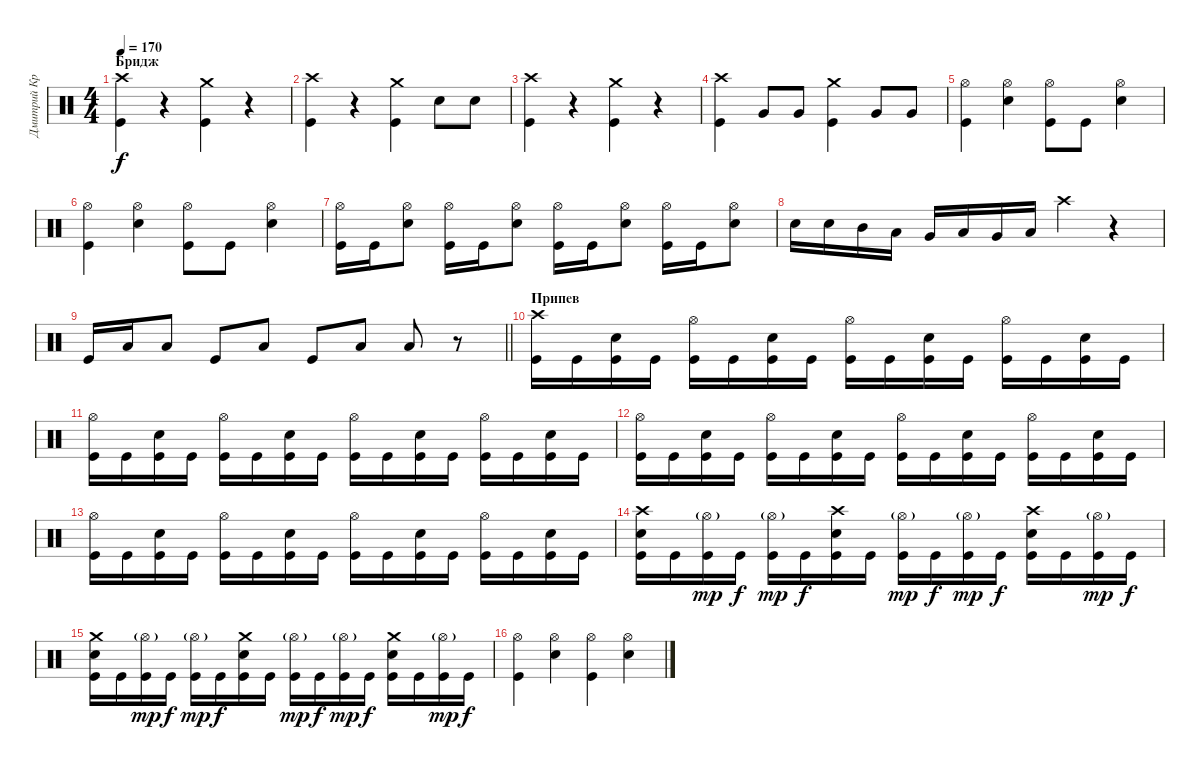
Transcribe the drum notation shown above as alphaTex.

\track ("Дмитрий Кривенков" "Дмитрий Кр") {instrument percussion}
\staff {score}
\articulation defaults
\ts (4 4)
\section ("" "Бридж")
\tempo 170
\clef neutral
\ks c
("Crash high (hit)" "Kick (hit)").4{dy f} r.4 ("Crash medium (hit)" "Kick (hit)").4 r.4 |
("Crash high (hit)" "Kick (hit)").4 r.4 ("Crash medium (hit)" "Kick (hit)").4 "Snare (hit) 2".8 "Snare (hit) 2".8 |
("Crash high (hit)" "Kick (hit)").4 r.4 ("Crash medium (hit)" "Kick (hit)").4 r.4 |
("Crash high (hit)" "Kick (hit)").4 "Very Low Tom (hit)".8 "Very Low Tom (hit)".8 ("Crash medium (hit)" "Kick (hit)").4 "Very Low Tom (hit)".8 "Very Low Tom (hit)".8 |
("Hi-Hat (open)" "Kick (hit)").4 ("Hi-Hat (open)" "Snare (hit) 2").4 ("Hi-Hat (open)" "Kick (hit)").8 "Kick (hit)".8 ("Hi-Hat (open)" "Snare (hit) 2").4 |
("Hi-Hat (open)" "Kick (hit)").4 ("Hi-Hat (open)" "Snare (hit) 2").4 ("Hi-Hat (open)" "Kick (hit)").8 "Kick (hit)".8 ("Hi-Hat (open)" "Snare (hit) 2").4 |
("Hi-Hat (open)" "Kick (hit)").16 "Kick (hit)".16 ("Hi-Hat (open)" "Snare (hit) 2").8 ("Hi-Hat (open)" "Kick (hit)").16 "Kick (hit)".16 ("Hi-Hat (open)" "Snare (hit) 2").8 ("Hi-Hat (open)" "Kick (hit)").16 "Kick (hit)".16 ("Hi-Hat (open)" "Snare (hit) 2").8 ("Hi-Hat (open)" "Kick (hit)").16 "Kick (hit)".16 ("Hi-Hat (open)" "Snare (hit) 2").8 |
"Snare (hit) 2".16 "Snare (hit) 2".16 "Mid Tom (hit)".16 "Low Tom (hit)".16 "Very Low Tom (hit)".16 "Low Floor Tom (hit)".16 "Very Low Tom (hit)".16 "Low Tom (hit)".16 "Crash high (hit)".4 r.4 |
\barLineRight lightlight "Kick (hit)".16 "Low Tom (hit)".16 "Low Tom (hit)".8 "Kick (hit)".8 "Low Tom (hit)".8 "Kick (hit)".8 "Low Tom (hit)".8 "Low Tom (hit)".8
r.8 |
\section ("" "Припев")
("Crash high (hit)" "Kick (hit)").16 "Kick (hit)".16 ("Snare (hit) 2" "Kick (hit)").16 "Kick (hit)".16 ("Hi-Hat (open)" "Kick (hit)").16 "Kick (hit)".16 ("Snare (hit) 2" "Kick (hit)").16 "Kick (hit)".16 ("Hi-Hat (open)" "Kick (hit)").16 "Kick (hit)".16 ("Snare (hit) 2" "Kick (hit)").16 "Kick (hit)".16 ("Hi-Hat (open)" "Kick (hit)").16 "Kick (hit)".16 ("Snare (hit) 2" "Kick (hit)").16 "Kick (hit)".16 |
("Hi-Hat (open)" "Kick (hit)").16 "Kick (hit)".16 ("Snare (hit) 2" "Kick (hit)").16 "Kick (hit)".16 ("Hi-Hat (open)" "Kick (hit)").16 "Kick (hit)".16 ("Snare (hit) 2" "Kick (hit)").16 "Kick (hit)".16 ("Hi-Hat (open)" "Kick (hit)").16 "Kick (hit)".16 ("Snare (hit) 2" "Kick (hit)").16 "Kick (hit)".16 ("Hi-Hat (open)" "Kick (hit)").16 "Kick (hit)".16 ("Snare (hit) 2" "Kick (hit)").16 "Kick (hit)".16 |
("Hi-Hat (open)" "Kick (hit)").16 "Kick (hit)".16 ("Snare (hit) 2" "Kick (hit)").16 "Kick (hit)".16 ("Hi-Hat (open)" "Kick (hit)").16 "Kick (hit)".16 ("Snare (hit) 2" "Kick (hit)").16 "Kick (hit)".16 ("Hi-Hat (open)" "Kick (hit)").16 "Kick (hit)".16 ("Snare (hit) 2" "Kick (hit)").16 "Kick (hit)".16 ("Hi-Hat (open)" "Kick (hit)").16 "Kick (hit)".16 ("Snare (hit) 2" "Kick (hit)").16 "Kick (hit)".16 |
("Hi-Hat (open)" "Kick (hit)").16 "Kick (hit)".16 ("Snare (hit) 2" "Kick (hit)").16 "Kick (hit)".16 ("Hi-Hat (open)" "Kick (hit)").16 "Kick (hit)".16 ("Snare (hit) 2" "Kick (hit)").16 "Kick (hit)".16 ("Hi-Hat (open)" "Kick (hit)").16 "Kick (hit)".16 ("Snare (hit) 2" "Kick (hit)").16 "Kick (hit)".16 ("Hi-Hat (open)" "Kick (hit)").16 "Kick (hit)".16 ("Snare (hit) 2" "Kick (hit)").16 "Kick (hit)".16 |
("Crash high (hit)" "Snare (hit) 2" "Kick (hit)").16 "Kick (hit)".16 ("Hi-Hat (open)"{g} "Kick (hit)").16{dy mp} "Kick (hit)".16{dy f} ("Hi-Hat (open)"{g} "Kick (hit)").16{dy mp} "Kick (hit)".16{dy f} ("Crash high (hit)" "Snare (hit) 2" "Kick (hit)").16 "Kick (hit)".16 ("Hi-Hat (open)"{g} "Kick (hit)").16{dy mp} "Kick (hit)".16{dy f} ("Hi-Hat (open)"{g} "Kick (hit)").16{dy mp} "Kick (hit)".16{dy f} ("Crash high (hit)" "Snare (hit) 2" "Kick (hit)").16 "Kick (hit)".16 ("Hi-Hat (open)"{g} "Kick (hit)").16{dy mp} "Kick (hit)".16{dy f} |
("Crash medium (hit)" "Snare (hit) 2" "Kick (hit)").16 "Kick (hit)".16 ("Hi-Hat (open)"{g} "Kick (hit)").16{dy mp} "Kick (hit)".16{dy f} ("Hi-Hat (open)"{g} "Kick (hit)").16{dy mp} "Kick (hit)".16{dy f} ("Crash medium (hit)" "Snare (hit) 2" "Kick (hit)").16 "Kick (hit)".16 ("Hi-Hat (open)"{g} "Kick (hit)").16{dy mp} "Kick (hit)".16{dy f} ("Hi-Hat (open)"{g} "Kick (hit)").16{dy mp} "Kick (hit)".16{dy f} ("Crash medium (hit)" "Snare (hit) 2" "Kick (hit)").16 "Kick (hit)".16 ("Hi-Hat (open)"{g} "Kick (hit)").16{dy mp} "Kick (hit)".16{dy f} |
("Hi-Hat (open)" "Kick (hit)").4 ("Hi-Hat (open)" "Snare (hit) 2").4 ("Hi-Hat (open)" "Kick (hit)").4 ("Hi-Hat (open)" "Snare (hit) 2").4
